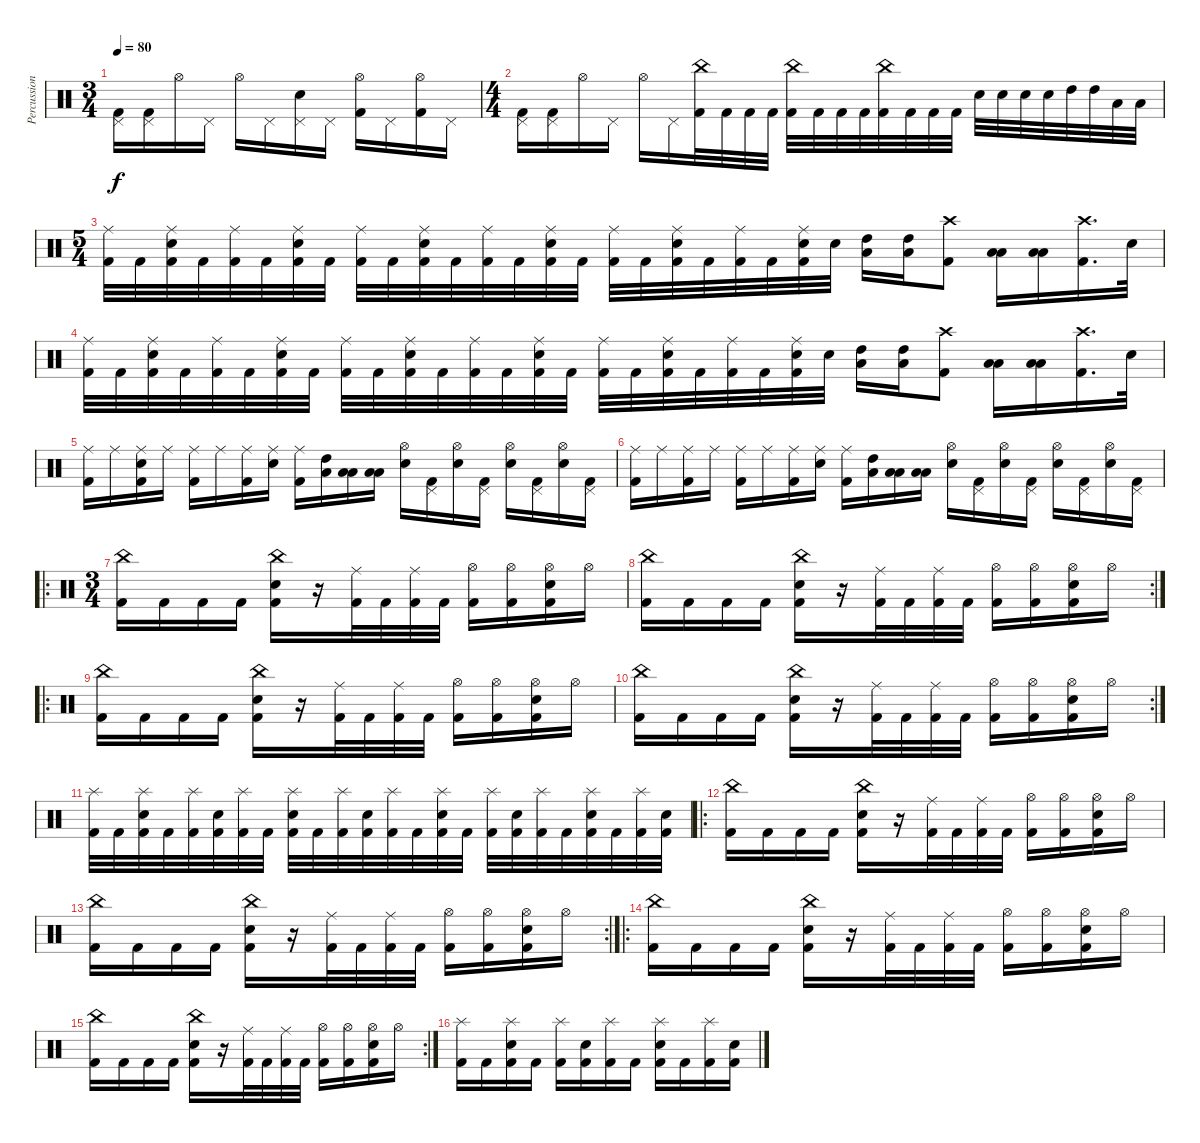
\track ("Percussion" "Percussion") {instrument percussion}
\staff {score}
\articulation defaults
\ts (3 4)
\tempo 80
\clef neutral
\ks c
("Pedal Hi-Hat (hit)" "Kick (hit) 2").16{dy f} ("Pedal Hi-Hat (hit)" "Kick (hit) 2").16 "Hi-Hat (open)".16 "Pedal Hi-Hat (hit)".16 "Hi-Hat (open)".16 "Pedal Hi-Hat (hit)".16 ("Pedal Hi-Hat (hit)" "Electric Snare (hit)").16 "Pedal Hi-Hat (hit)".16 ("Hi-Hat (open)" "Kick (hit) 2").16 "Pedal Hi-Hat (hit)".16 ("Hi-Hat (open)" "Kick (hit) 2").16 "Pedal Hi-Hat (hit)".16 |
\ts (4 4)
("Pedal Hi-Hat (hit)" "Kick (hit) 2").16 ("Pedal Hi-Hat (hit)" "Kick (hit) 2").16 "Hi-Hat (open)".16 "Pedal Hi-Hat (hit)".16 "Hi-Hat (open)".16 "Pedal Hi-Hat (hit)".16 ("China (hit)" "Kick (hit) 2").32 "Kick (hit) 2".32 "Kick (hit) 2".32 "Kick (hit) 2".32 ("China (hit)" "Kick (hit) 2").32 "Kick (hit) 2".32 "Kick (hit) 2".32 "Kick (hit) 2".32 ("China (hit)" "Kick (hit) 2").32 "Kick (hit) 2".32 "Kick (hit) 2".32 "Kick (hit) 2".32 "Electric Snare (hit)".32 "Electric Snare (hit)".32 "Electric Snare (hit)".32 "Electric Snare (hit)".32 "High Tom (hit)".32 "High Tom (hit)".32 "Low Tom (hit)".32 "Low Floor Tom (hit)".32 |
\ts (5 4)
("Ride (middle)" "Kick (hit) 2").32 "Kick (hit) 2".32 ("Ride (middle)" "Electric Snare (hit)" "Kick (hit) 2").32 "Kick (hit) 2".32 ("Ride (middle)" "Kick (hit) 2").32 "Kick (hit) 2".32 ("Ride (middle)" "Electric Snare (hit)" "Kick (hit) 2").32 "Kick (hit) 2".32 ("Ride (middle)" "Kick (hit) 2").32 "Kick (hit) 2".32 ("Ride (middle)" "Electric Snare (hit)" "Kick (hit) 2").32 "Kick (hit) 2".32 ("Ride (middle)" "Kick (hit) 2").32 "Kick (hit) 2".32 ("Ride (middle)" "Electric Snare (hit)" "Kick (hit) 2").32 "Kick (hit) 2".32 ("Ride (middle)" "Kick (hit) 2").32 "Kick (hit) 2".32 ("Ride (middle)" "Electric Snare (hit)" "Kick (hit) 2").32 "Kick (hit) 2".32 ("Ride (middle)" "Kick (hit) 2").32 "Kick (hit) 2".32 ("Ride (middle)" "Electric Snare (hit)" "Kick (hit) 2").32 "Electric Snare (hit)".32 ("High Tom (hit)" "Low Tom (hit)").16 ("High Tom (hit)" "Low Tom (hit)").16 ("Crash high (hit)" "Kick (hit) 2").8 ("Low Tom (hit)" "Low Floor Tom (hit)").16 ("Low Tom (hit)" "Low Floor Tom (hit)").16 ("Crash high (hit)" "Kick (hit) 2").16{d} "Electric Snare (hit)".32 |
("Ride (middle)" "Kick (hit) 2").32 "Kick (hit) 2".32 ("Ride (middle)" "Electric Snare (hit)" "Kick (hit) 2").32 "Kick (hit) 2".32 ("Ride (middle)" "Kick (hit) 2").32 "Kick (hit) 2".32 ("Ride (middle)" "Electric Snare (hit)" "Kick (hit) 2").32 "Kick (hit) 2".32 ("Ride (middle)" "Kick (hit) 2").32 "Kick (hit) 2".32 ("Ride (middle)" "Electric Snare (hit)" "Kick (hit) 2").32 "Kick (hit) 2".32 ("Ride (middle)" "Kick (hit) 2").32 "Kick (hit) 2".32 ("Ride (middle)" "Electric Snare (hit)" "Kick (hit) 2").32 "Kick (hit) 2".32 ("Ride (middle)" "Kick (hit) 2").32 "Kick (hit) 2".32 ("Ride (middle)" "Electric Snare (hit)" "Kick (hit) 2").32 "Kick (hit) 2".32 ("Ride (middle)" "Kick (hit) 2").32 "Kick (hit) 2".32 ("Ride (middle)" "Electric Snare (hit)" "Kick (hit) 2").32 "Electric Snare (hit)".32 ("High Tom (hit)" "Low Tom (hit)").16 ("High Tom (hit)" "Low Tom (hit)").16 ("Crash high (hit)" "Kick (hit) 2").8 ("Low Tom (hit)" "Low Floor Tom (hit)").16 ("Low Tom (hit)" "Low Floor Tom (hit)").16 ("Crash high (hit)" "Kick (hit) 2").16{d} "Electric Snare (hit)".32 |
("Ride (middle)" "Kick (hit) 2").16 "Ride (middle)".16 ("Ride (middle)" "Electric Snare (hit)" "Kick (hit) 2").16 "Ride (middle)".16 ("Ride (middle)" "Kick (hit) 2").16 "Ride (middle)".16 ("Ride (middle)" "Kick (hit) 2").16 ("Ride (middle)" "Electric Snare (hit)").16 ("Ride (middle)" "Kick (hit) 2").16 ("High Tom (hit)" "Low Tom (hit)").16 ("Low Tom (hit)" "Low Floor Tom (hit)").16 ("Low Floor Tom (hit)" "Low Floor Tom (hit)").16 ("Hi-Hat (open)" "Electric Snare (hit)").16 ("Pedal Hi-Hat (hit)" "Kick (hit) 2").16 ("Hi-Hat (open)" "Electric Snare (hit)").16 ("Pedal Hi-Hat (hit)" "Kick (hit) 2").16 ("Hi-Hat (open)" "Electric Snare (hit)").16 ("Pedal Hi-Hat (hit)" "Kick (hit) 2").16 ("Hi-Hat (open)" "Electric Snare (hit)").16 ("Pedal Hi-Hat (hit)" "Kick (hit) 2").16 |
("Ride (middle)" "Kick (hit) 2").16 "Ride (middle)".16 ("Ride (middle)" "Kick (hit) 2").16 "Ride (middle)".16 ("Ride (middle)" "Kick (hit) 2").16 "Ride (middle)".16 ("Ride (middle)" "Kick (hit) 2").16 ("Ride (middle)" "Electric Snare (hit)").16 ("Ride (middle)" "Kick (hit) 2").16 ("High Tom (hit)" "Low Tom (hit)").16 ("Low Tom (hit)" "Low Floor Tom (hit)").16 ("Low Floor Tom (hit)" "Low Floor Tom (hit)").16 ("Hi-Hat (open)" "Electric Snare (hit)").16 ("Pedal Hi-Hat (hit)" "Kick (hit) 2").16 ("Hi-Hat (open)" "Electric Snare (hit)").16 ("Pedal Hi-Hat (hit)" "Kick (hit) 2").16 ("Hi-Hat (open)" "Electric Snare (hit)").16 ("Pedal Hi-Hat (hit)" "Kick (hit) 2").16 ("Hi-Hat (open)" "Electric Snare (hit)").16 ("Pedal Hi-Hat (hit)" "Kick (hit) 2").16 |
\ro
\ts (3 4)
("China (hit)" "Kick (hit) 2").16 "Kick (hit) 2".16 "Kick (hit) 2".16 "Kick (hit) 2".16 ("China (hit)" "Electric Snare (hit)" "Kick (hit) 2").16 r.16 ("Ride (middle)" "Kick (hit) 2").32 "Kick (hit) 2".32 ("Ride (middle)" "Kick (hit) 2").32 "Kick (hit) 2".32 ("Hi-Hat (open)" "Kick (hit) 2").16 ("Hi-Hat (open)" "Kick (hit) 2").16 ("Hi-Hat (open)" "Electric Snare (hit)" "Kick (hit) 2").16 "Hi-Hat (open)".16 |
\rc 2
("China (hit)" "Kick (hit) 2").16 "Kick (hit) 2".16 "Kick (hit) 2".16 "Kick (hit) 2".16 ("China (hit)" "Electric Snare (hit)" "Kick (hit) 2").16 r.16 ("Ride (middle)" "Kick (hit) 2").32 "Kick (hit) 2".32 ("Ride (middle)" "Kick (hit) 2").32 "Kick (hit) 2".32 ("Hi-Hat (open)" "Kick (hit) 2").16 ("Hi-Hat (open)" "Kick (hit) 2").16 ("Hi-Hat (open)" "Electric Snare (hit)" "Kick (hit) 2").16 "Hi-Hat (open)".16 |
\ro
("China (hit)" "Kick (hit) 2").16 "Kick (hit) 2".16 "Kick (hit) 2".16 "Kick (hit) 2".16 ("China (hit)" "Electric Snare (hit)" "Kick (hit) 2").16 r.16 ("Ride (middle)" "Kick (hit) 2").32 "Kick (hit) 2".32 ("Ride (middle)" "Kick (hit) 2").32 "Kick (hit) 2".32 ("Hi-Hat (open)" "Kick (hit) 2").16 ("Hi-Hat (open)" "Kick (hit) 2").16 ("Hi-Hat (open)" "Electric Snare (hit)" "Kick (hit) 2").16 "Hi-Hat (open)".16 |
\rc 2
("China (hit)" "Kick (hit) 2").16 "Kick (hit) 2".16 "Kick (hit) 2".16 "Kick (hit) 2".16 ("China (hit)" "Electric Snare (hit)" "Kick (hit) 2").16 r.16 ("Ride (middle)" "Kick (hit) 2").32 "Kick (hit) 2".32 ("Ride (middle)" "Kick (hit) 2").32 "Kick (hit) 2".32 ("Hi-Hat (open)" "Kick (hit) 2").16 ("Hi-Hat (open)" "Kick (hit) 2").16 ("Hi-Hat (open)" "Electric Snare (hit)" "Kick (hit) 2").16 "Hi-Hat (open)".16 |
("Splash (hit)" "Kick (hit) 2").32 "Kick (hit) 2".32 ("Splash (hit)" "Electric Snare (hit)" "Kick (hit) 2").32 "Kick (hit) 2".32 ("Splash (hit)" "Kick (hit) 2").32 ("Electric Snare (hit)" "Kick (hit) 2").32 ("Splash (hit)" "Kick (hit) 2").32 "Kick (hit) 2".32 ("Splash (hit)" "Electric Snare (hit)" "Kick (hit) 2").32 "Kick (hit) 2".32 ("Splash (hit)" "Kick (hit) 2").32 ("Electric Snare (hit)" "Kick (hit) 2").32 ("Splash (hit)" "Kick (hit) 2").32 "Kick (hit) 2".32 ("Splash (hit)" "Electric Snare (hit)" "Kick (hit) 2").32 "Kick (hit) 2".32 ("Splash (hit)" "Kick (hit) 2").32 ("Electric Snare (hit)" "Kick (hit) 2").32 ("Splash (hit)" "Kick (hit) 2").32 "Kick (hit) 2".32 ("Splash (hit)" "Electric Snare (hit)" "Kick (hit) 2").32 "Kick (hit) 2".32 ("Splash (hit)" "Kick (hit) 2").32 ("Electric Snare (hit)" "Kick (hit) 2").32 |
\ro
("China (hit)" "Kick (hit) 2").16 "Kick (hit) 2".16 "Kick (hit) 2".16 "Kick (hit) 2".16 ("China (hit)" "Electric Snare (hit)" "Kick (hit) 2").16 r.16 ("Ride (middle)" "Kick (hit) 2").32 "Kick (hit) 2".32 ("Ride (middle)" "Kick (hit) 2").32 "Kick (hit) 2".32 ("Hi-Hat (open)" "Kick (hit) 2").16 ("Hi-Hat (open)" "Kick (hit) 2").16 ("Hi-Hat (open)" "Electric Snare (hit)" "Kick (hit) 2").16 "Hi-Hat (open)".16 |
\rc 2
("China (hit)" "Kick (hit) 2").16 "Kick (hit) 2".16 "Kick (hit) 2".16 "Kick (hit) 2".16 ("China (hit)" "Electric Snare (hit)" "Kick (hit) 2").16 r.16 ("Ride (middle)" "Kick (hit) 2").32 "Kick (hit) 2".32 ("Ride (middle)" "Kick (hit) 2").32 "Kick (hit) 2".32 ("Hi-Hat (open)" "Kick (hit) 2").16 ("Hi-Hat (open)" "Kick (hit) 2").16 ("Hi-Hat (open)" "Electric Snare (hit)" "Kick (hit) 2").16 "Hi-Hat (open)".16 |
\ro
("China (hit)" "Kick (hit) 2").16 "Kick (hit) 2".16 "Kick (hit) 2".16 "Kick (hit) 2".16 ("China (hit)" "Electric Snare (hit)" "Kick (hit) 2").16 r.16 ("Ride (middle)" "Kick (hit) 2").32 "Kick (hit) 2".32 ("Ride (middle)" "Kick (hit) 2").32 "Kick (hit) 2".32 ("Hi-Hat (open)" "Kick (hit) 2").16 ("Hi-Hat (open)" "Kick (hit) 2").16 ("Hi-Hat (open)" "Electric Snare (hit)" "Kick (hit) 2").16 "Hi-Hat (open)".16 |
\rc 2
("China (hit)" "Kick (hit) 2").16 "Kick (hit) 2".16 "Kick (hit) 2".16 "Kick (hit) 2".16 ("China (hit)" "Electric Snare (hit)" "Kick (hit) 2").16 r.16 ("Ride (middle)" "Kick (hit) 2").32 "Kick (hit) 2".32 ("Ride (middle)" "Kick (hit) 2").32 "Kick (hit) 2".32 ("Hi-Hat (open)" "Kick (hit) 2").16 ("Hi-Hat (open)" "Kick (hit) 2").16 ("Hi-Hat (open)" "Electric Snare (hit)" "Kick (hit) 2").16 "Hi-Hat (open)".16 |
("Splash (hit)" "Kick (hit) 2").16 "Kick (hit) 2".16 ("Splash (hit)" "Electric Snare (hit)" "Kick (hit) 2").16 "Kick (hit) 2".16 ("Splash (hit)" "Kick (hit) 2").16 ("Electric Snare (hit)" "Kick (hit) 2").16 ("Splash (hit)" "Kick (hit) 2").16 "Kick (hit) 2".16 ("Splash (hit)" "Electric Snare (hit)" "Kick (hit) 2").16 "Kick (hit) 2".16 ("Splash (hit)" "Kick (hit) 2").16 ("Electric Snare (hit)" "Kick (hit) 2").16
